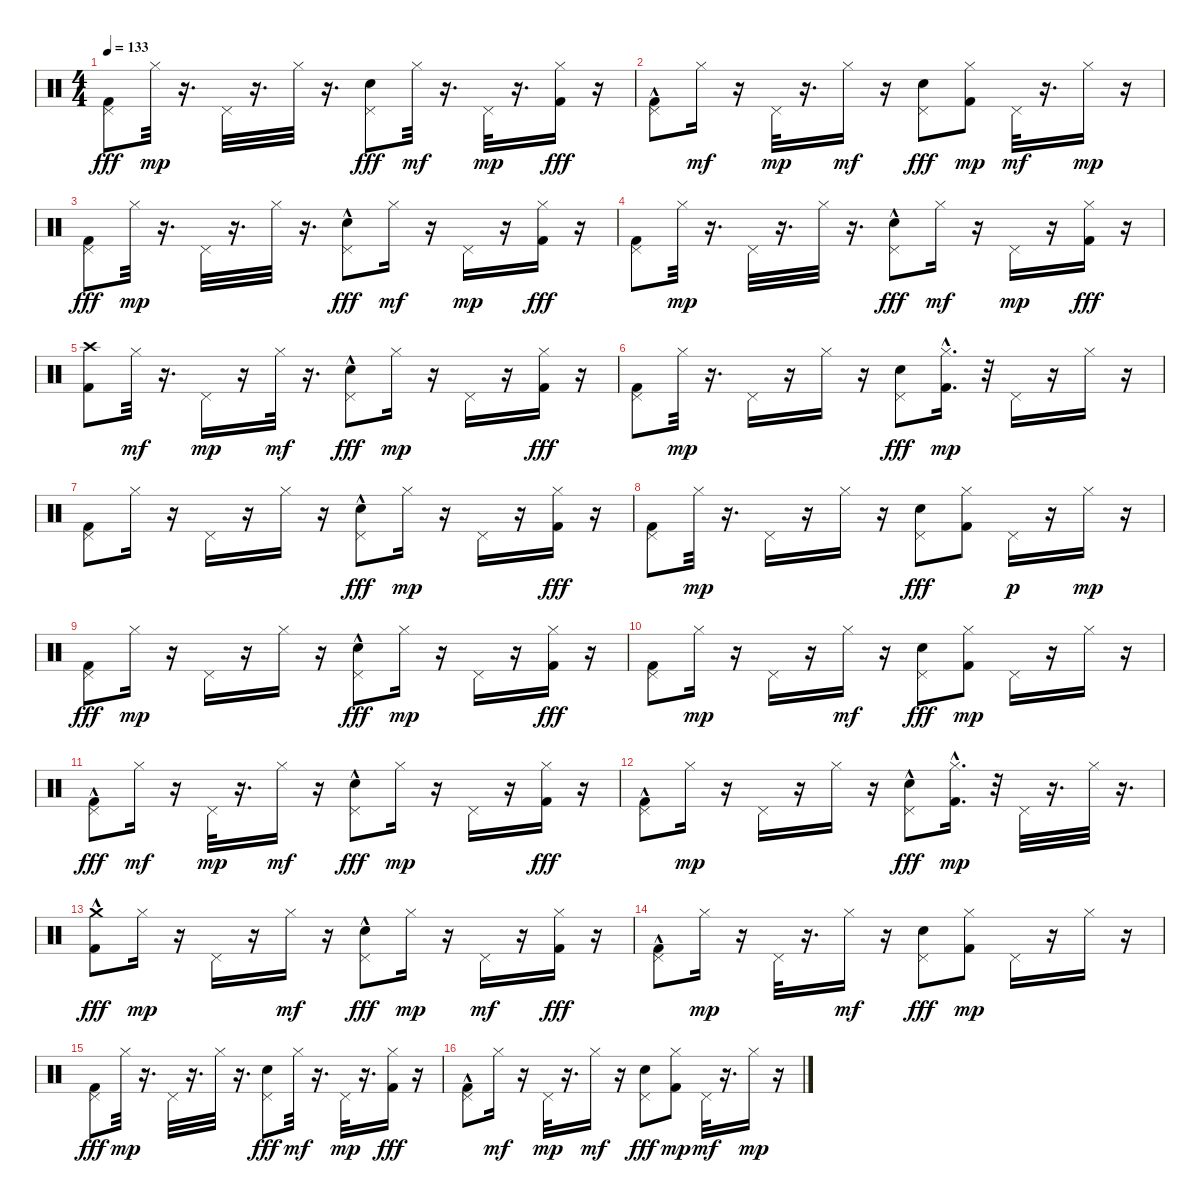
\track "" {instrument percussion}
\staff {score}
\articulation defaults
\ts (4 4)
\tempo 133
\clef neutral
\ks c
("Pedal Hi-Hat (hit)" "Kick (hit) 2").8{dy fff} "Hi-Hat (closed)".32{dy mp} r.16{d} "Pedal Hi-Hat (hit)".32 r.16{d} "Hi-Hat (closed)".32 r.16{d} ("Pedal Hi-Hat (hit)" "Snare (hit) 2").8{dy fff} "Hi-Hat (closed)".32{dy mf} r.16{d} "Pedal Hi-Hat (hit)".32{dy mp} r.16{d} ("Hi-Hat (closed)" "Kick (hit) 2").16{dy fff} r.16 |
("Pedal Hi-Hat (hit)" "Kick (hit) 2"{hac}).8 "Hi-Hat (closed)".16{dy mf} r.16 "Pedal Hi-Hat (hit)".32{dy mp} r.16{d} "Hi-Hat (closed)".16{dy mf} r.16 ("Pedal Hi-Hat (hit)" "Snare (hit) 2").8{dy fff} ("Kick (hit) 2" "Hi-Hat (closed)").8{dy mp} "Pedal Hi-Hat (hit)".32{dy mf} r.16{d} "Hi-Hat (closed)".16{dy mp} r.16 |
("Pedal Hi-Hat (hit)" "Kick (hit) 2").8{dy fff} "Hi-Hat (closed)".32{dy mp} r.16{d} "Pedal Hi-Hat (hit)".32 r.16{d} "Hi-Hat (closed)".32 r.16{d} ("Pedal Hi-Hat (hit)" "Snare (hit) 2"{hac}).8{dy fff} "Hi-Hat (closed)".16{dy mf} r.16 "Pedal Hi-Hat (hit)".16{dy mp} r.16 ("Hi-Hat (closed)" "Kick (hit) 2").16{dy fff} r.16 |
("Pedal Hi-Hat (hit)" "Kick (hit) 2").8 "Hi-Hat (closed)".32{dy mp} r.16{d} "Pedal Hi-Hat (hit)".32 r.16{d} "Hi-Hat (closed)".32 r.16{d} ("Pedal Hi-Hat (hit)" "Snare (hit) 2"{hac}).8{dy fff} "Hi-Hat (closed)".16{dy mf} r.16 "Pedal Hi-Hat (hit)".16{dy mp} r.16 ("Hi-Hat (closed)" "Kick (hit) 2").16{dy fff} r.16 |
("Crash high (hit)" "Kick (hit) 2").8 "Hi-Hat (closed)".32{dy mf} r.16{d} "Pedal Hi-Hat (hit)".16{dy mp} r.16 "Hi-Hat (closed)".32{dy mf} r.16{d} ("Pedal Hi-Hat (hit)" "Snare (hit) 2"{hac}).8{dy fff} "Hi-Hat (closed)".16{dy mp} r.16 "Pedal Hi-Hat (hit)".16 r.16 ("Hi-Hat (closed)" "Kick (hit) 2").16{dy fff} r.16 |
("Pedal Hi-Hat (hit)" "Kick (hit) 2").8 "Hi-Hat (closed)".32{dy mp} r.16{d} "Pedal Hi-Hat (hit)".16 r.16 "Hi-Hat (closed)".16 r.16 ("Pedal Hi-Hat (hit)" "Snare (hit) 2").8{dy fff} ("Kick (hit) 2"{hac} "Hi-Hat (closed)").16{d dy mp} r.32 "Pedal Hi-Hat (hit)".16 r.16 "Hi-Hat (closed)".16 r.16 |
("Kick (hit) 2" "Pedal Hi-Hat (hit)").8 "Hi-Hat (closed)".16 r.16 "Pedal Hi-Hat (hit)".16 r.16 "Hi-Hat (closed)".16 r.16 ("Pedal Hi-Hat (hit)" "Snare (hit) 2"{hac}).8{dy fff} "Hi-Hat (closed)".16{dy mp} r.16 "Pedal Hi-Hat (hit)".16 r.16 ("Hi-Hat (closed)" "Kick (hit) 2").16{dy fff} r.16 |
("Pedal Hi-Hat (hit)" "Kick (hit) 2").8 "Hi-Hat (closed)".32{dy mp} r.16{d} "Pedal Hi-Hat (hit)".16 r.16 "Hi-Hat (closed)".16 r.16 ("Pedal Hi-Hat (hit)" "Snare (hit) 2").8{dy fff} ("Hi-Hat (closed)" "Kick (hit) 2").8 "Pedal Hi-Hat (hit)".16{dy p} r.16 "Hi-Hat (closed)".16{dy mp} r.16 |
("Pedal Hi-Hat (hit)" "Kick (hit) 2").8{dy fff} "Hi-Hat (closed)".16{dy mp} r.16 "Pedal Hi-Hat (hit)".16 r.16 "Hi-Hat (closed)".16 r.16 ("Pedal Hi-Hat (hit)" "Snare (hit) 2"{hac}).8{dy fff} "Hi-Hat (closed)".16{dy mp} r.16 "Pedal Hi-Hat (hit)".16 r.16 ("Hi-Hat (closed)" "Kick (hit) 2").16{dy fff} r.16 |
("Pedal Hi-Hat (hit)" "Kick (hit) 2").8 "Hi-Hat (closed)".16{dy mp} r.16 "Pedal Hi-Hat (hit)".16 r.16 "Hi-Hat (closed)".16{dy mf} r.16 ("Pedal Hi-Hat (hit)" "Snare (hit) 2").8{dy fff} ("Kick (hit) 2" "Hi-Hat (closed)").8{dy mp} "Pedal Hi-Hat (hit)".16 r.16 "Hi-Hat (closed)".16 r.16 |
("Pedal Hi-Hat (hit)" "Kick (hit) 2"{hac}).8{dy fff} "Hi-Hat (closed)".16{dy mf} r.16 "Pedal Hi-Hat (hit)".32{dy mp} r.16{d} "Hi-Hat (closed)".16{dy mf} r.16 ("Pedal Hi-Hat (hit)" "Snare (hit) 2"{hac}).8{dy fff} "Hi-Hat (closed)".16{dy mp} r.16 "Pedal Hi-Hat (hit)".16 r.16 ("Hi-Hat (closed)" "Kick (hit) 2").16{dy fff} r.16 |
("Pedal Hi-Hat (hit)" "Kick (hit) 2"{hac}).8 "Hi-Hat (closed)".16{dy mp} r.16 "Pedal Hi-Hat (hit)".16 r.16 "Hi-Hat (closed)".16 r.16 ("Pedal Hi-Hat (hit)" "Snare (hit) 2"{hac}).8{dy fff} ("Kick (hit) 2"{hac} "Hi-Hat (closed)").16{d dy mp} r.32 "Pedal Hi-Hat (hit)".32 r.16{d} "Hi-Hat (closed)".32 r.16{d} |
("Crash medium (hit)" "Kick (hit) 2"{hac}).8{dy fff} "Hi-Hat (closed)".16{dy mp} r.16 "Pedal Hi-Hat (hit)".16 r.16 "Hi-Hat (closed)".16{dy mf} r.16 ("Pedal Hi-Hat (hit)" "Snare (hit) 2"{hac}).8{dy fff} "Hi-Hat (closed)".16{dy mp} r.16 "Pedal Hi-Hat (hit)".16{dy mf} r.16 ("Hi-Hat (closed)" "Kick (hit) 2").16{dy fff} r.16 |
("Pedal Hi-Hat (hit)" "Kick (hit) 2"{hac}).8 "Hi-Hat (closed)".16{dy mp} r.16 "Pedal Hi-Hat (hit)".32 r.16{d} "Hi-Hat (closed)".16{dy mf} r.16 ("Pedal Hi-Hat (hit)" "Snare (hit) 2").8{dy fff} ("Kick (hit) 2" "Hi-Hat (closed)").8{dy mp} "Pedal Hi-Hat (hit)".16 r.16 "Hi-Hat (closed)".16 r.16 |
("Pedal Hi-Hat (hit)" "Kick (hit) 2").8{dy fff} "Hi-Hat (closed)".32{dy mp} r.16{d} "Pedal Hi-Hat (hit)".32 r.16{d} "Hi-Hat (closed)".32 r.16{d} ("Pedal Hi-Hat (hit)" "Snare (hit) 2").8{dy fff} "Hi-Hat (closed)".32{dy mf} r.16{d} "Pedal Hi-Hat (hit)".32{dy mp} r.16{d} ("Hi-Hat (closed)" "Kick (hit) 2").16{dy fff} r.16 |
("Pedal Hi-Hat (hit)" "Kick (hit) 2"{hac}).8 "Hi-Hat (closed)".16{dy mf} r.16 "Pedal Hi-Hat (hit)".32{dy mp} r.16{d} "Hi-Hat (closed)".16{dy mf} r.16 ("Pedal Hi-Hat (hit)" "Snare (hit) 2").8{dy fff} ("Kick (hit) 2" "Hi-Hat (closed)").8{dy mp} "Pedal Hi-Hat (hit)".32{dy mf} r.16{d} "Hi-Hat (closed)".16{dy mp} r.16
